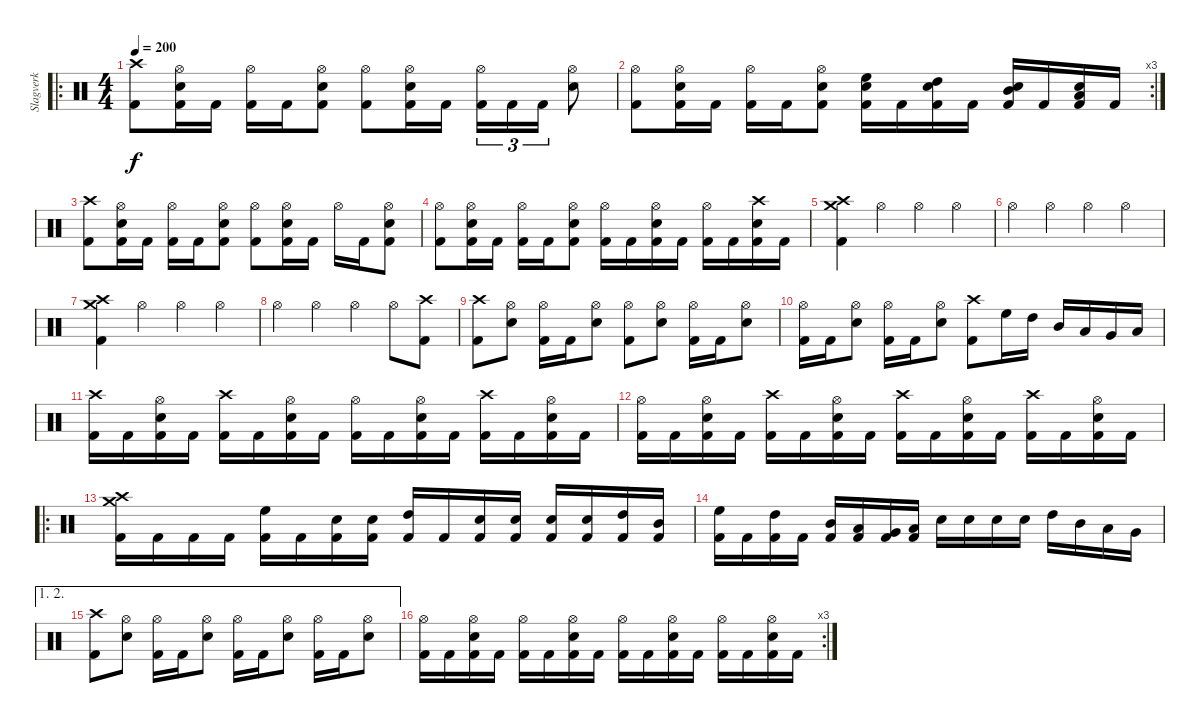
\track ("Slagverk" "Slagverk") {instrument percussion}
\staff {score}
\articulation defaults
\ro
\ts (4 4)
\tempo 200
\clef neutral
\ks c
("Kick (hit) 2" "Crash high (hit)").8{dy f} ("Kick (hit) 2" "Electric Snare (hit)" "Hi-Hat (open)").16 "Kick (hit) 2".16 ("Kick (hit) 2" "Hi-Hat (open)").16 "Kick (hit) 2".16 ("Kick (hit) 2" "Electric Snare (hit)" "Hi-Hat (open)").8 ("Kick (hit) 2" "Hi-Hat (open)").8 ("Kick (hit) 2" "Electric Snare (hit)" "Hi-Hat (open)").16 "Kick (hit) 2".16 ("Kick (hit) 2" "Hi-Hat (open)").16{tu (3 2)} "Kick (hit) 2".16{tu (3 2)} "Kick (hit) 2".16{tu (3 2)} ("Electric Snare (hit)" "Hi-Hat (open)").8 |
\rc 3
("Kick (hit) 2" "Hi-Hat (open)").8 ("Kick (hit) 2" "Electric Snare (hit)" "Hi-Hat (open)").16 "Kick (hit) 2".16 ("Kick (hit) 2" "Hi-Hat (open)").16 "Kick (hit) 2".16 ("Kick (hit) 2" "Electric Snare (hit)" "Hi-Hat (open)").8 ("Kick (hit) 2" "Electric Snare (hit)" "High Floor Tom (hit)").16 "Kick (hit) 2".16 ("Kick (hit) 2" "Electric Snare (hit)" "High Tom (hit)").16 "Kick (hit) 2".16 ("Kick (hit) 2" "Electric Snare (hit)" "Mid Tom (hit)").16 "Kick (hit) 2".16 ("Kick (hit) 2" "Electric Snare (hit)" "Low Tom (hit)").16 "Kick (hit) 2".16 |
("Kick (hit) 2" "Crash high (hit)").8 ("Kick (hit) 2" "Electric Snare (hit)" "Hi-Hat (open)").16 "Kick (hit) 2".16 ("Kick (hit) 2" "Hi-Hat (open)").16 "Kick (hit) 2".16 ("Kick (hit) 2" "Electric Snare (hit)" "Hi-Hat (open)").8 ("Kick (hit) 2" "Hi-Hat (open)").8 ("Kick (hit) 2" "Electric Snare (hit)" "Hi-Hat (open)").16 "Kick (hit) 2".16 "Hi-Hat (open)".16 "Kick (hit) 2".16 ("Kick (hit) 2" "Electric Snare (hit)" "Hi-Hat (open)").8 |
("Kick (hit) 2" "Hi-Hat (open)").8 ("Kick (hit) 2" "Electric Snare (hit)" "Hi-Hat (open)").16 "Kick (hit) 2".16 ("Kick (hit) 2" "Hi-Hat (open)").16 "Kick (hit) 2".16 ("Kick (hit) 2" "Electric Snare (hit)" "Hi-Hat (open)").8 ("Kick (hit) 2" "Hi-Hat (open)").16 "Kick (hit) 2".16 ("Kick (hit) 2" "Electric Snare (hit)" "Hi-Hat (open)").16 "Kick (hit) 2".16 ("Kick (hit) 2" "Hi-Hat (open)").16 "Kick (hit) 2".16 ("Kick (hit) 2" "Electric Snare (hit)" "Crash high (hit)").16 "Kick (hit) 2".16 |
("Kick (hit) 2" "Crash high (hit)" "Crash medium (hit)").4 "Hi-Hat (open)".4 "Hi-Hat (open)".4 "Hi-Hat (open)".4 |
"Hi-Hat (open)".4 "Hi-Hat (open)".4 "Hi-Hat (open)".4 "Hi-Hat (open)".4 |
("Kick (hit) 2" "Crash high (hit)" "Crash medium (hit)").4 "Hi-Hat (open)".4 "Hi-Hat (open)".4 "Hi-Hat (open)".4 |
"Hi-Hat (open)".4 "Hi-Hat (open)".4 "Hi-Hat (open)".4 "Hi-Hat (open)".8 ("Kick (hit) 2" "Crash high (hit)").8 |
("Kick (hit) 2" "Crash high (hit)").8 ("Electric Snare (hit)" "Hi-Hat (open)").8 ("Kick (hit) 2" "Hi-Hat (open)").16 "Kick (hit) 2".16 ("Electric Snare (hit)" "Hi-Hat (open)").8 ("Kick (hit) 2" "Hi-Hat (open)").8 ("Electric Snare (hit)" "Hi-Hat (open)").8 ("Kick (hit) 2" "Hi-Hat (open)").16 "Kick (hit) 2".16 ("Electric Snare (hit)" "Hi-Hat (open)").8 |
("Kick (hit) 2" "Hi-Hat (open)").16 "Kick (hit) 2".16 ("Electric Snare (hit)" "Hi-Hat (open)").8 ("Kick (hit) 2" "Hi-Hat (open)").16 "Kick (hit) 2".16 ("Electric Snare (hit)" "Hi-Hat (open)").8 ("Kick (hit) 2" "Crash high (hit)").8 "High Floor Tom (hit)".16 "High Tom (hit)".16 "Mid Tom (hit)".16 "Low Tom (hit)".16 "Very Low Tom (hit)".16 "Low Floor Tom (hit)".16 |
("Kick (hit) 2" "Crash high (hit)").16 "Kick (hit) 2".16 ("Kick (hit) 2" "Electric Snare (hit)" "Hi-Hat (open)").16 "Kick (hit) 2".16 ("Kick (hit) 2" "Crash high (hit)").16 "Kick (hit) 2".16 ("Kick (hit) 2" "Electric Snare (hit)" "Hi-Hat (open)").16 "Kick (hit) 2".16 ("Kick (hit) 2" "Hi-Hat (open)").16 "Kick (hit) 2".16 ("Kick (hit) 2" "Electric Snare (hit)" "Hi-Hat (open)").16 "Kick (hit) 2".16 ("Kick (hit) 2" "Crash high (hit)").16 "Kick (hit) 2".16 ("Kick (hit) 2" "Electric Snare (hit)" "Hi-Hat (open)").16 "Kick (hit) 2".16 |
("Kick (hit) 2" "Hi-Hat (open)").16 "Kick (hit) 2".16 ("Kick (hit) 2" "Electric Snare (hit)" "Hi-Hat (open)").16 "Kick (hit) 2".16 ("Kick (hit) 2" "Crash high (hit)").16 "Kick (hit) 2".16 ("Kick (hit) 2" "Electric Snare (hit)" "Hi-Hat (open)").16 "Kick (hit) 2".16 ("Kick (hit) 2" "Crash high (hit)").16 "Kick (hit) 2".16 ("Kick (hit) 2" "Electric Snare (hit)" "Hi-Hat (open)").16 "Kick (hit) 2".16 ("Kick (hit) 2" "Crash high (hit)").16 "Kick (hit) 2".16 ("Kick (hit) 2" "Electric Snare (hit)" "Hi-Hat (open)").16 "Kick (hit) 2".16 |
\ro
("Kick (hit) 2" "Crash high (hit)" "Crash medium (hit)").16 "Kick (hit) 2".16 "Kick (hit) 2".16 "Kick (hit) 2".16 ("Kick (hit) 2" "High Floor Tom (hit)").16 "Kick (hit) 2".16 ("Kick (hit) 2" "Electric Snare (hit)").16 ("Kick (hit) 2" "Electric Snare (hit)").16 ("Kick (hit) 2" "High Tom (hit)").16 "Kick (hit) 2".16 ("Kick (hit) 2" "Electric Snare (hit)").16 ("Kick (hit) 2" "Electric Snare (hit)").16 ("Kick (hit) 2" "Electric Snare (hit)").16 ("Kick (hit) 2" "Electric Snare (hit)").16 ("Kick (hit) 2" "High Tom (hit)").16 ("Kick (hit) 2" "Mid Tom (hit)").16 |
("Kick (hit) 2" "High Floor Tom (hit)").16 "Kick (hit) 2".16 ("Kick (hit) 2" "High Tom (hit)").16 "Kick (hit) 2".16 ("Kick (hit) 2" "Mid Tom (hit)").16 ("Kick (hit) 2" "Low Tom (hit)").16 ("Kick (hit) 2" "Very Low Tom (hit)").16 ("Kick (hit) 2" "Low Floor Tom (hit)").16 "Electric Snare (hit)".16 "Electric Snare (hit)".16 "Electric Snare (hit)".16 "Electric Snare (hit)".16 "High Tom (hit)".16 "Mid Tom (hit)".16 "Low Tom (hit)".16 "Very Low Tom (hit)".16 |
\ae (1 2)
("Kick (hit) 2" "Crash high (hit)").8 ("Electric Snare (hit)" "Hi-Hat (open)").8 ("Kick (hit) 2" "Hi-Hat (open)").16 "Kick (hit) 2".16 ("Electric Snare (hit)" "Hi-Hat (open)").8 ("Kick (hit) 2" "Hi-Hat (open)").16 "Kick (hit) 2".16 ("Electric Snare (hit)" "Hi-Hat (open)").8 ("Kick (hit) 2" "Hi-Hat (open)").16 "Kick (hit) 2".16 ("Electric Snare (hit)" "Hi-Hat (open)").8 |
\rc 3
("Kick (hit) 2" "Hi-Hat (open)").16 "Kick (hit) 2".16 ("Kick (hit) 2" "Electric Snare (hit)" "Hi-Hat (open)").16 "Kick (hit) 2".16 ("Kick (hit) 2" "Hi-Hat (open)").16 "Kick (hit) 2".16 ("Kick (hit) 2" "Electric Snare (hit)" "Hi-Hat (open)").16 "Kick (hit) 2".16 ("Kick (hit) 2" "Hi-Hat (open)").16 "Kick (hit) 2".16 ("Kick (hit) 2" "Electric Snare (hit)" "Hi-Hat (open)").16 "Kick (hit) 2".16 ("Kick (hit) 2" "Hi-Hat (open)").16 "Kick (hit) 2".16 ("Kick (hit) 2" "Electric Snare (hit)" "Hi-Hat (open)").16 "Kick (hit) 2".16
